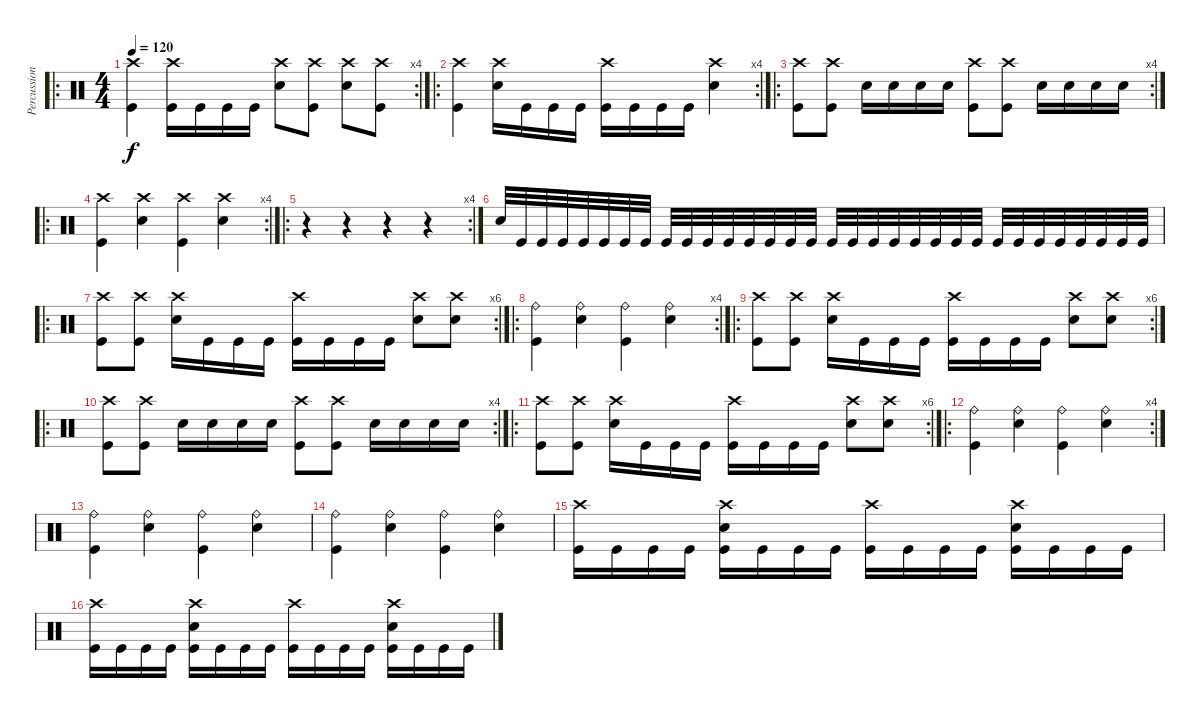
\track ("Percussion" "Percussion") {instrument percussion}
\staff {score}
\articulation defaults
\ro
\rc 4
\ts (4 4)
\tempo 120
\clef neutral
\ks c
("Crash high (hit)" "Kick (hit)").4{dy f} ("Crash high (hit)" "Kick (hit)").16 "Kick (hit)".16 "Kick (hit)".16 "Kick (hit)".16 ("Crash high (hit)" "Electric Snare (hit)").8 ("Crash high (hit)" "Kick (hit)").8 ("Crash high (hit)" "Electric Snare (hit)").8 ("Crash high (hit)" "Kick (hit)").8 |
\ro
\rc 4
("Crash high (hit)" "Kick (hit)").4 ("Crash high (hit)" "Electric Snare (hit)").16 "Kick (hit)".16 "Kick (hit)".16 "Kick (hit)".16 ("Crash high (hit)" "Kick (hit)").16 "Kick (hit)".16 "Kick (hit)".16 "Kick (hit)".16 ("Crash high (hit)" "Electric Snare (hit)").4 |
\ro
\rc 4
("Crash high (hit)" "Kick (hit)").8 ("Crash high (hit)" "Kick (hit)").8 "Electric Snare (hit)".16 "Electric Snare (hit)".16 "Electric Snare (hit)".16 "Electric Snare (hit)".16 ("Crash high (hit)" "Kick (hit)").8 ("Crash high (hit)" "Kick (hit)").8 "Electric Snare (hit)".16 "Electric Snare (hit)".16 "Electric Snare (hit)".16 "Electric Snare (hit)".16 |
\ro
\rc 4
("Crash high (hit)" "Kick (hit)").4 ("Crash high (hit)" "Electric Snare (hit)").4 ("Crash high (hit)" "Kick (hit)").4 ("Crash high (hit)" "Electric Snare (hit)").4 |
\ro
\rc 4
r.4 r.4 r.4 r.4 |
"Electric Snare (hit)".32 "Kick (hit)".32 "Kick (hit)".32 "Kick (hit)".32 "Kick (hit)".32 "Kick (hit)".32 "Kick (hit)".32 "Kick (hit)".32 "Kick (hit)".32 "Kick (hit)".32 "Kick (hit)".32 "Kick (hit)".32 "Kick (hit)".32 "Kick (hit)".32 "Kick (hit)".32 "Kick (hit)".32 "Kick (hit)".32 "Kick (hit)".32 "Kick (hit)".32 "Kick (hit)".32 "Kick (hit)".32 "Kick (hit)".32 "Kick (hit)".32 "Kick (hit)".32 "Kick (hit)".32 "Kick (hit)".32 "Kick (hit)".32 "Kick (hit)".32 "Kick (hit)".32 "Kick (hit)".32 "Kick (hit)".32 "Kick (hit)".32 |
\ro
\rc 6
("Crash high (hit)" "Kick (hit)").8 ("Crash high (hit)" "Kick (hit)").8 ("Crash high (hit)" "Electric Snare (hit)").16 "Kick (hit)".16 "Kick (hit)".16 "Kick (hit)".16 ("Crash high (hit)" "Kick (hit)").16 "Kick (hit)".16 "Kick (hit)".16 "Kick (hit)".16 ("Crash high (hit)" "Electric Snare (hit)").8 ("Crash high (hit)" "Electric Snare (hit)").8 |
\ro
\rc 4
("Ride (bell)" "Kick (hit)").4 ("Ride (bell)" "Electric Snare (hit)").4 ("Ride (bell)" "Kick (hit)").4 ("Ride (bell)" "Electric Snare (hit)").4 |
\ro
\rc 6
("Crash high (hit)" "Kick (hit)").8 ("Crash high (hit)" "Kick (hit)").8 ("Crash high (hit)" "Electric Snare (hit)").16 "Kick (hit)".16 "Kick (hit)".16 "Kick (hit)".16 ("Crash high (hit)" "Kick (hit)").16 "Kick (hit)".16 "Kick (hit)".16 "Kick (hit)".16 ("Crash high (hit)" "Electric Snare (hit)").8 ("Crash high (hit)" "Electric Snare (hit)").8 |
\ro
\rc 4
("Crash high (hit)" "Kick (hit)").8 ("Crash high (hit)" "Kick (hit)").8 "Electric Snare (hit)".16 "Electric Snare (hit)".16 "Electric Snare (hit)".16 "Electric Snare (hit)".16 ("Crash high (hit)" "Kick (hit)").8 ("Crash high (hit)" "Kick (hit)").8 "Electric Snare (hit)".16 "Electric Snare (hit)".16 "Electric Snare (hit)".16 "Electric Snare (hit)".16 |
\ro
\rc 6
("Crash high (hit)" "Kick (hit)").8 ("Crash high (hit)" "Kick (hit)").8 ("Crash high (hit)" "Electric Snare (hit)").16 "Kick (hit)".16 "Kick (hit)".16 "Kick (hit)".16 ("Crash high (hit)" "Kick (hit)").16 "Kick (hit)".16 "Kick (hit)".16 "Kick (hit)".16 ("Crash high (hit)" "Electric Snare (hit)").8 ("Crash high (hit)" "Electric Snare (hit)").8 |
\ro
\rc 4
("Ride (bell)" "Kick (hit)").4 ("Ride (bell)" "Electric Snare (hit)").4 ("Ride (bell)" "Kick (hit)").4 ("Ride (bell)" "Electric Snare (hit)").4 |
("Ride (bell)" "Kick (hit)").4 ("Ride (bell)" "Electric Snare (hit)").4 ("Ride (bell)" "Kick (hit)").4 ("Ride (bell)" "Electric Snare (hit)").4 |
("Ride (bell)" "Kick (hit)").4 ("Ride (bell)" "Electric Snare (hit)").4 ("Ride (bell)" "Kick (hit)").4 ("Ride (bell)" "Electric Snare (hit)").4 |
("Crash high (hit)" "Kick (hit)").16 "Kick (hit)".16 "Kick (hit)".16 "Kick (hit)".16 ("Crash high (hit)" "Electric Snare (hit)" "Kick (hit)").16 "Kick (hit)".16 "Kick (hit)".16 "Kick (hit)".16 ("Crash high (hit)" "Kick (hit)").16 "Kick (hit)".16 "Kick (hit)".16 "Kick (hit)".16 ("Crash high (hit)" "Electric Snare (hit)" "Kick (hit)").16 "Kick (hit)".16 "Kick (hit)".16 "Kick (hit)".16 |
("Crash high (hit)" "Kick (hit)").16 "Kick (hit)".16 "Kick (hit)".16 "Kick (hit)".16 ("Crash high (hit)" "Electric Snare (hit)" "Kick (hit)").16 "Kick (hit)".16 "Kick (hit)".16 "Kick (hit)".16 ("Crash high (hit)" "Kick (hit)").16 "Kick (hit)".16 "Kick (hit)".16 "Kick (hit)".16 ("Crash high (hit)" "Electric Snare (hit)" "Kick (hit)").16 "Kick (hit)".16 "Kick (hit)".16 "Kick (hit)".16
